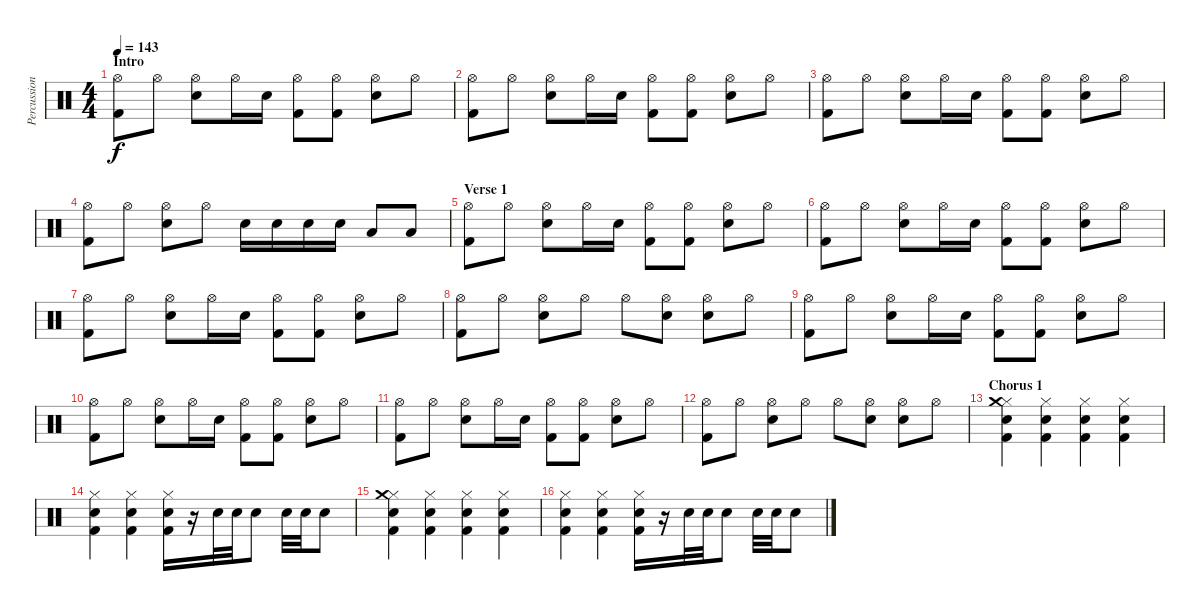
\track ("Percussion" "Percussion") {instrument percussion}
\staff {score}
\articulation defaults
\ts (4 4)
\section ("" "Intro")
\tempo 143
\clef neutral
\ks c
("Hi-Hat (open)" "Kick (hit) 2").8{dy f} "Hi-Hat (open)".8 ("Hi-Hat (open)" "Electric Snare (hit)").8 "Hi-Hat (open)".16 "Electric Snare (hit)".16 ("Hi-Hat (open)" "Kick (hit) 2").8 ("Hi-Hat (open)" "Kick (hit) 2").8 ("Hi-Hat (open)" "Electric Snare (hit)").8 "Hi-Hat (open)".8 |
("Hi-Hat (open)" "Kick (hit) 2").8 "Hi-Hat (open)".8 ("Hi-Hat (open)" "Electric Snare (hit)").8 "Hi-Hat (open)".16 "Electric Snare (hit)".16 ("Hi-Hat (open)" "Kick (hit) 2").8 ("Hi-Hat (open)" "Kick (hit) 2").8 ("Hi-Hat (open)" "Electric Snare (hit)").8 "Hi-Hat (open)".8 |
("Hi-Hat (open)" "Kick (hit) 2").8 "Hi-Hat (open)".8 ("Hi-Hat (open)" "Electric Snare (hit)").8 "Hi-Hat (open)".16 "Electric Snare (hit)".16 ("Hi-Hat (open)" "Kick (hit) 2").8 ("Hi-Hat (open)" "Kick (hit) 2").8 ("Hi-Hat (open)" "Electric Snare (hit)").8 "Hi-Hat (open)".8 |
("Hi-Hat (open)" "Kick (hit) 2").8 "Hi-Hat (open)".8 ("Hi-Hat (open)" "Electric Snare (hit)").8 "Hi-Hat (open)".8 "Electric Snare (hit)".16 "Electric Snare (hit)".16 "Electric Snare (hit)".16 "Electric Snare (hit)".16 "Low Tom (hit)".8 "Low Tom (hit)".8 |
\section ("" "Verse 1")
("Hi-Hat (open)" "Kick (hit) 2").8 "Hi-Hat (open)".8 ("Hi-Hat (open)" "Electric Snare (hit)").8 "Hi-Hat (open)".16 "Electric Snare (hit)".16 ("Hi-Hat (open)" "Kick (hit) 2").8 ("Hi-Hat (open)" "Kick (hit) 2").8 ("Hi-Hat (open)" "Electric Snare (hit)").8 "Hi-Hat (open)".8 |
("Hi-Hat (open)" "Kick (hit) 2").8 "Hi-Hat (open)".8 ("Hi-Hat (open)" "Electric Snare (hit)").8 "Hi-Hat (open)".16 "Electric Snare (hit)".16 ("Hi-Hat (open)" "Kick (hit) 2").8 ("Hi-Hat (open)" "Kick (hit) 2").8 ("Hi-Hat (open)" "Electric Snare (hit)").8 "Hi-Hat (open)".8 |
("Hi-Hat (open)" "Kick (hit) 2").8 "Hi-Hat (open)".8 ("Hi-Hat (open)" "Electric Snare (hit)").8 "Hi-Hat (open)".16 "Electric Snare (hit)".16 ("Hi-Hat (open)" "Kick (hit) 2").8 ("Hi-Hat (open)" "Kick (hit) 2").8 ("Hi-Hat (open)" "Electric Snare (hit)").8 "Hi-Hat (open)".8 |
("Hi-Hat (open)" "Kick (hit) 2").8 "Hi-Hat (open)".8 ("Hi-Hat (open)" "Electric Snare (hit)").8 "Hi-Hat (open)".8 "Hi-Hat (open)".8 ("Hi-Hat (open)" "Electric Snare (hit)").8 ("Hi-Hat (open)" "Electric Snare (hit)").8 "Hi-Hat (open)".8 |
("Hi-Hat (open)" "Kick (hit) 2").8 "Hi-Hat (open)".8 ("Hi-Hat (open)" "Electric Snare (hit)").8 "Hi-Hat (open)".16 "Electric Snare (hit)".16 ("Hi-Hat (open)" "Kick (hit) 2").8 ("Hi-Hat (open)" "Kick (hit) 2").8 ("Hi-Hat (open)" "Electric Snare (hit)").8 "Hi-Hat (open)".8 |
("Hi-Hat (open)" "Kick (hit) 2").8 "Hi-Hat (open)".8 ("Hi-Hat (open)" "Electric Snare (hit)").8 "Hi-Hat (open)".16 "Electric Snare (hit)".16 ("Hi-Hat (open)" "Kick (hit) 2").8 ("Hi-Hat (open)" "Kick (hit) 2").8 ("Hi-Hat (open)" "Electric Snare (hit)").8 "Hi-Hat (open)".8 |
("Hi-Hat (open)" "Kick (hit) 2").8 "Hi-Hat (open)".8 ("Hi-Hat (open)" "Electric Snare (hit)").8 "Hi-Hat (open)".16 "Electric Snare (hit)".16 ("Hi-Hat (open)" "Kick (hit) 2").8 ("Hi-Hat (open)" "Kick (hit) 2").8 ("Hi-Hat (open)" "Electric Snare (hit)").8 "Hi-Hat (open)".8 |
("Hi-Hat (open)" "Kick (hit) 2").8 "Hi-Hat (open)".8 ("Hi-Hat (open)" "Electric Snare (hit)").8 "Hi-Hat (open)".8 "Hi-Hat (open)".8 ("Hi-Hat (open)" "Electric Snare (hit)").8 ("Hi-Hat (open)" "Electric Snare (hit)").8 "Hi-Hat (open)".8 |
\section ("" "Chorus 1")
("Hi-Hat (closed)" "Crash medium (hit)" "Electric Snare (hit)" "Kick (hit) 2").4 ("Hi-Hat (closed)" "Electric Snare (hit)" "Kick (hit) 2").4 ("Hi-Hat (closed)" "Electric Snare (hit)" "Kick (hit) 2").4 ("Hi-Hat (closed)" "Electric Snare (hit)" "Kick (hit) 2").4 |
("Hi-Hat (closed)" "Electric Snare (hit)" "Kick (hit) 2").4 ("Hi-Hat (closed)" "Electric Snare (hit)" "Kick (hit) 2").4 ("Hi-Hat (closed)" "Electric Snare (hit)" "Kick (hit) 2").16 r.16 "Electric Snare (hit)".32 "Electric Snare (hit)".32 "Electric Snare (hit)".8 "Electric Snare (hit)".32 "Electric Snare (hit)".32 "Electric Snare (hit)".8 |
("Hi-Hat (closed)" "Crash medium (hit)" "Electric Snare (hit)" "Kick (hit) 2").4 ("Hi-Hat (closed)" "Electric Snare (hit)" "Kick (hit) 2").4 ("Hi-Hat (closed)" "Electric Snare (hit)" "Kick (hit) 2").4 ("Hi-Hat (closed)" "Electric Snare (hit)" "Kick (hit) 2").4 |
("Hi-Hat (closed)" "Electric Snare (hit)" "Kick (hit) 2").4 ("Hi-Hat (closed)" "Electric Snare (hit)" "Kick (hit) 2").4 ("Hi-Hat (closed)" "Electric Snare (hit)" "Kick (hit) 2").16 r.16 "Electric Snare (hit)".32 "Electric Snare (hit)".32 "Electric Snare (hit)".8 "Electric Snare (hit)".32 "Electric Snare (hit)".32 "Electric Snare (hit)".8
